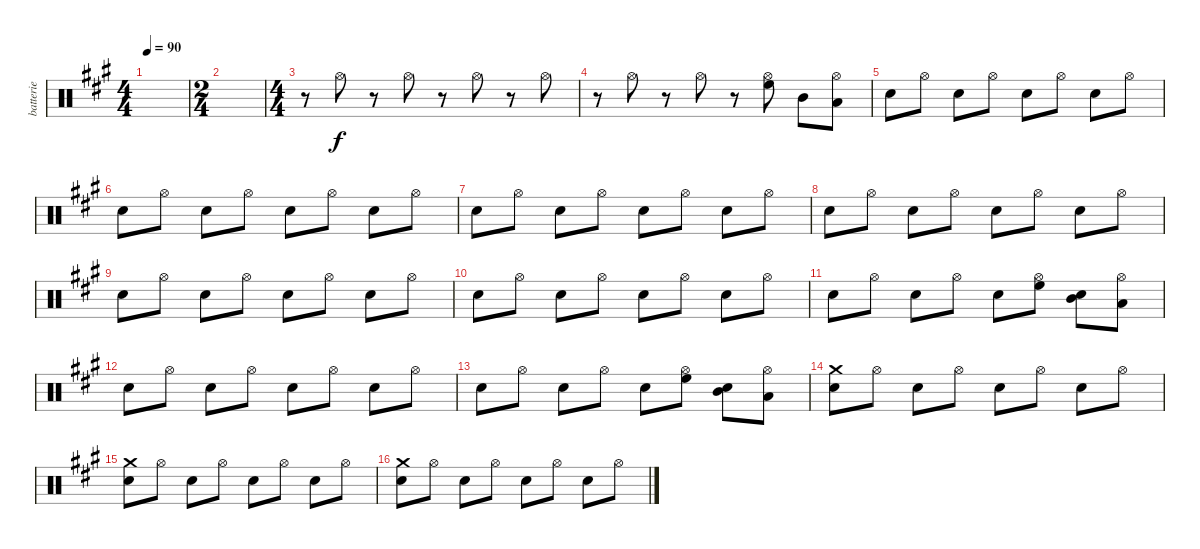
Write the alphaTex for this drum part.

\track ("batterie" "batterie") {instrument percussion}
\staff {score}
\articulation defaults
\ts (4 4)
\tempo 90
\clef neutral
\ks f#minor
|
\ts (2 4)
|
\ts (4 4)
r.8 "Hi-Hat (open)".8 r.8 "Hi-Hat (open)".8 r.8 "Hi-Hat (open)".8 r.8 "Hi-Hat (open)".8 |
r.8 "Hi-Hat (open)".8 r.8 "Hi-Hat (open)".8 r.8 ("Hi-Hat (open)" "High Floor Tom (hit)").8 "Mid Tom (hit)".8 ("Hi-Hat (open)" "Low Tom (hit)").8 |
"Electric Snare (hit)".8 "Hi-Hat (open)".8 "Electric Snare (hit)".8 "Hi-Hat (open)".8 "Electric Snare (hit)".8 "Hi-Hat (open)".8 "Electric Snare (hit)".8 "Hi-Hat (open)".8 |
"Electric Snare (hit)".8 "Hi-Hat (open)".8 "Electric Snare (hit)".8 "Hi-Hat (open)".8 "Electric Snare (hit)".8 "Hi-Hat (open)".8 "Electric Snare (hit)".8 "Hi-Hat (open)".8 |
"Electric Snare (hit)".8 "Hi-Hat (open)".8 "Electric Snare (hit)".8 "Hi-Hat (open)".8 "Electric Snare (hit)".8 "Hi-Hat (open)".8 "Electric Snare (hit)".8 "Hi-Hat (open)".8 |
"Electric Snare (hit)".8 "Hi-Hat (open)".8 "Electric Snare (hit)".8 "Hi-Hat (open)".8 "Electric Snare (hit)".8 "Hi-Hat (open)".8 "Electric Snare (hit)".8 "Hi-Hat (open)".8 |
"Electric Snare (hit)".8 "Hi-Hat (open)".8 "Electric Snare (hit)".8 "Hi-Hat (open)".8 "Electric Snare (hit)".8 "Hi-Hat (open)".8 "Electric Snare (hit)".8 "Hi-Hat (open)".8 |
"Electric Snare (hit)".8 "Hi-Hat (open)".8 "Electric Snare (hit)".8 "Hi-Hat (open)".8 "Electric Snare (hit)".8 "Hi-Hat (open)".8 "Electric Snare (hit)".8 "Hi-Hat (open)".8 |
"Electric Snare (hit)".8 "Hi-Hat (open)".8 "Electric Snare (hit)".8 "Hi-Hat (open)".8 "Electric Snare (hit)".8 ("High Floor Tom (hit)" "Hi-Hat (open)").8 ("Mid Tom (hit)" "Electric Snare (hit)").8 ("Low Tom (hit)" "Hi-Hat (open)").8 |
"Electric Snare (hit)".8 "Hi-Hat (open)".8 "Electric Snare (hit)".8 "Hi-Hat (open)".8 "Electric Snare (hit)".8 "Hi-Hat (open)".8 "Electric Snare (hit)".8 "Hi-Hat (open)".8 |
"Electric Snare (hit)".8 "Hi-Hat (open)".8 "Electric Snare (hit)".8 "Hi-Hat (open)".8 "Electric Snare (hit)".8 ("High Floor Tom (hit)" "Hi-Hat (open)").8 ("Mid Tom (hit)" "Electric Snare (hit)").8 ("Low Tom (hit)" "Hi-Hat (open)").8 |
("Crash medium (hit)" "Electric Snare (hit)").8 "Hi-Hat (open)".8 "Electric Snare (hit)".8 "Hi-Hat (open)".8 "Electric Snare (hit)".8 "Hi-Hat (open)".8 "Electric Snare (hit)".8 "Hi-Hat (open)".8 |
("Crash medium (hit)" "Electric Snare (hit)").8 "Hi-Hat (open)".8 "Electric Snare (hit)".8 "Hi-Hat (open)".8 "Electric Snare (hit)".8 "Hi-Hat (open)".8 "Electric Snare (hit)".8 "Hi-Hat (open)".8 |
("Crash medium (hit)" "Electric Snare (hit)").8 "Hi-Hat (open)".8 "Electric Snare (hit)".8 "Hi-Hat (open)".8 "Electric Snare (hit)".8 "Hi-Hat (open)".8 "Electric Snare (hit)".8 "Hi-Hat (open)".8
